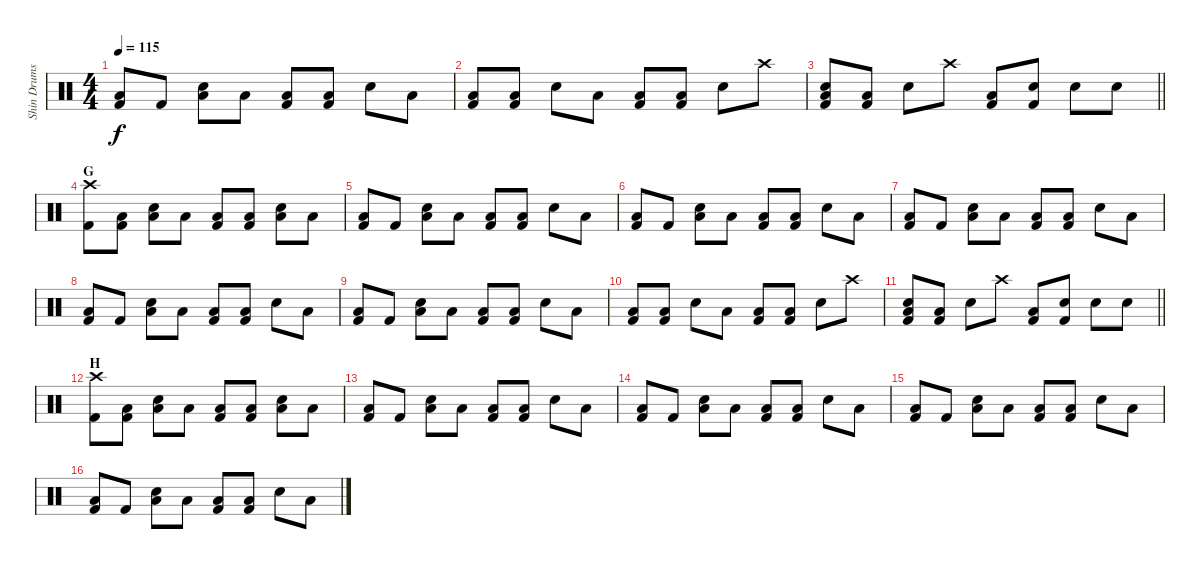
\track ("Shin Drums" "Shin Drums") {instrument percussion}
\staff {score}
\articulation defaults
\ts (4 4)
\tempo 115
\clef neutral
\ks c
("Low Floor Tom (hit)" "Kick (hit) 2").8{dy f} "Kick (hit) 2".8 ("Low Floor Tom (hit)" "Snare (hit) 2").8 "Low Floor Tom (hit)".8 ("Low Floor Tom (hit)" "Kick (hit) 2").8 ("Low Floor Tom (hit)" "Kick (hit) 2").8 "Snare (hit) 2".8 "Low Floor Tom (hit)".8 |
("Low Floor Tom (hit)" "Kick (hit) 2").8 ("Low Floor Tom (hit)" "Kick (hit) 2").8 "Snare (hit) 2".8 "Low Floor Tom (hit)".8 ("Low Floor Tom (hit)" "Kick (hit) 2").8 ("Low Floor Tom (hit)" "Kick (hit) 2").8 "Snare (hit) 2".8 "Crash high (hit)".8 |
\barLineRight lightlight
("Low Floor Tom (hit)" "Snare (hit) 2" "Kick (hit) 2").8 ("Low Floor Tom (hit)" "Kick (hit) 2").8 "Snare (hit) 2".8 "Crash high (hit)".8 ("Low Floor Tom (hit)" "Kick (hit) 2").8 ("Snare (hit) 2" "Kick (hit) 2").8 "Snare (hit) 2".8 "Snare (hit) 2".8 |
\section ("" "G")
("Crash high (hit)" "Kick (hit) 2").8 ("Low Floor Tom (hit)" "Kick (hit) 2").8 ("Low Floor Tom (hit)" "Snare (hit) 2").8 "Low Floor Tom (hit)".8 ("Low Floor Tom (hit)" "Kick (hit) 2").8 ("Low Floor Tom (hit)" "Kick (hit) 2").8 ("Low Floor Tom (hit)" "Snare (hit) 2").8 "Low Floor Tom (hit)".8 |
("Low Floor Tom (hit)" "Kick (hit) 2").8 "Kick (hit) 2".8 ("Low Floor Tom (hit)" "Snare (hit) 2").8 "Low Floor Tom (hit)".8 ("Low Floor Tom (hit)" "Kick (hit) 2").8 ("Low Floor Tom (hit)" "Kick (hit) 2").8 "Snare (hit) 2".8 "Low Floor Tom (hit)".8 |
("Low Floor Tom (hit)" "Kick (hit) 2").8 "Kick (hit) 2".8 ("Low Floor Tom (hit)" "Snare (hit) 2").8 "Low Floor Tom (hit)".8 ("Low Floor Tom (hit)" "Kick (hit) 2").8 ("Low Floor Tom (hit)" "Kick (hit) 2").8 "Snare (hit) 2".8 "Low Floor Tom (hit)".8 |
("Low Floor Tom (hit)" "Kick (hit) 2").8 "Kick (hit) 2".8 ("Low Floor Tom (hit)" "Snare (hit) 2").8 "Low Floor Tom (hit)".8 ("Low Floor Tom (hit)" "Kick (hit) 2").8 ("Low Floor Tom (hit)" "Kick (hit) 2").8 "Snare (hit) 2".8 "Low Floor Tom (hit)".8 |
("Low Floor Tom (hit)" "Kick (hit) 2").8 "Kick (hit) 2".8 ("Low Floor Tom (hit)" "Snare (hit) 2").8 "Low Floor Tom (hit)".8 ("Low Floor Tom (hit)" "Kick (hit) 2").8 ("Low Floor Tom (hit)" "Kick (hit) 2").8 "Snare (hit) 2".8 "Low Floor Tom (hit)".8 |
("Low Floor Tom (hit)" "Kick (hit) 2").8 "Kick (hit) 2".8 ("Low Floor Tom (hit)" "Snare (hit) 2").8 "Low Floor Tom (hit)".8 ("Low Floor Tom (hit)" "Kick (hit) 2").8 ("Low Floor Tom (hit)" "Kick (hit) 2").8 "Snare (hit) 2".8 "Low Floor Tom (hit)".8 |
("Low Floor Tom (hit)" "Kick (hit) 2").8 ("Low Floor Tom (hit)" "Kick (hit) 2").8 "Snare (hit) 2".8 "Low Floor Tom (hit)".8 ("Low Floor Tom (hit)" "Kick (hit) 2").8 ("Low Floor Tom (hit)" "Kick (hit) 2").8 "Snare (hit) 2".8 "Crash high (hit)".8 |
\barLineRight lightlight
("Low Floor Tom (hit)" "Snare (hit) 2" "Kick (hit) 2").8 ("Low Floor Tom (hit)" "Kick (hit) 2").8 "Snare (hit) 2".8 "Crash high (hit)".8 ("Low Floor Tom (hit)" "Kick (hit) 2").8 ("Snare (hit) 2" "Kick (hit) 2").8 "Snare (hit) 2".8 "Snare (hit) 2".8 |
\section ("" "H")
("Crash high (hit)" "Kick (hit) 2").8 ("Low Floor Tom (hit)" "Kick (hit) 2").8 ("Low Floor Tom (hit)" "Snare (hit) 2").8 "Low Floor Tom (hit)".8 ("Low Floor Tom (hit)" "Kick (hit) 2").8 ("Low Floor Tom (hit)" "Kick (hit) 2").8 ("Low Floor Tom (hit)" "Snare (hit) 2").8 "Low Floor Tom (hit)".8 |
("Low Floor Tom (hit)" "Kick (hit) 2").8 "Kick (hit) 2".8 ("Low Floor Tom (hit)" "Snare (hit) 2").8 "Low Floor Tom (hit)".8 ("Low Floor Tom (hit)" "Kick (hit) 2").8 ("Low Floor Tom (hit)" "Kick (hit) 2").8 "Snare (hit) 2".8 "Low Floor Tom (hit)".8 |
("Low Floor Tom (hit)" "Kick (hit) 2").8 "Kick (hit) 2".8 ("Low Floor Tom (hit)" "Snare (hit) 2").8 "Low Floor Tom (hit)".8 ("Low Floor Tom (hit)" "Kick (hit) 2").8 ("Low Floor Tom (hit)" "Kick (hit) 2").8 "Snare (hit) 2".8 "Low Floor Tom (hit)".8 |
("Low Floor Tom (hit)" "Kick (hit) 2").8 "Kick (hit) 2".8 ("Low Floor Tom (hit)" "Snare (hit) 2").8 "Low Floor Tom (hit)".8 ("Low Floor Tom (hit)" "Kick (hit) 2").8 ("Low Floor Tom (hit)" "Kick (hit) 2").8 "Snare (hit) 2".8 "Low Floor Tom (hit)".8 |
("Low Floor Tom (hit)" "Kick (hit) 2").8 "Kick (hit) 2".8 ("Low Floor Tom (hit)" "Snare (hit) 2").8 "Low Floor Tom (hit)".8 ("Low Floor Tom (hit)" "Kick (hit) 2").8 ("Low Floor Tom (hit)" "Kick (hit) 2").8 "Snare (hit) 2".8 "Low Floor Tom (hit)".8
